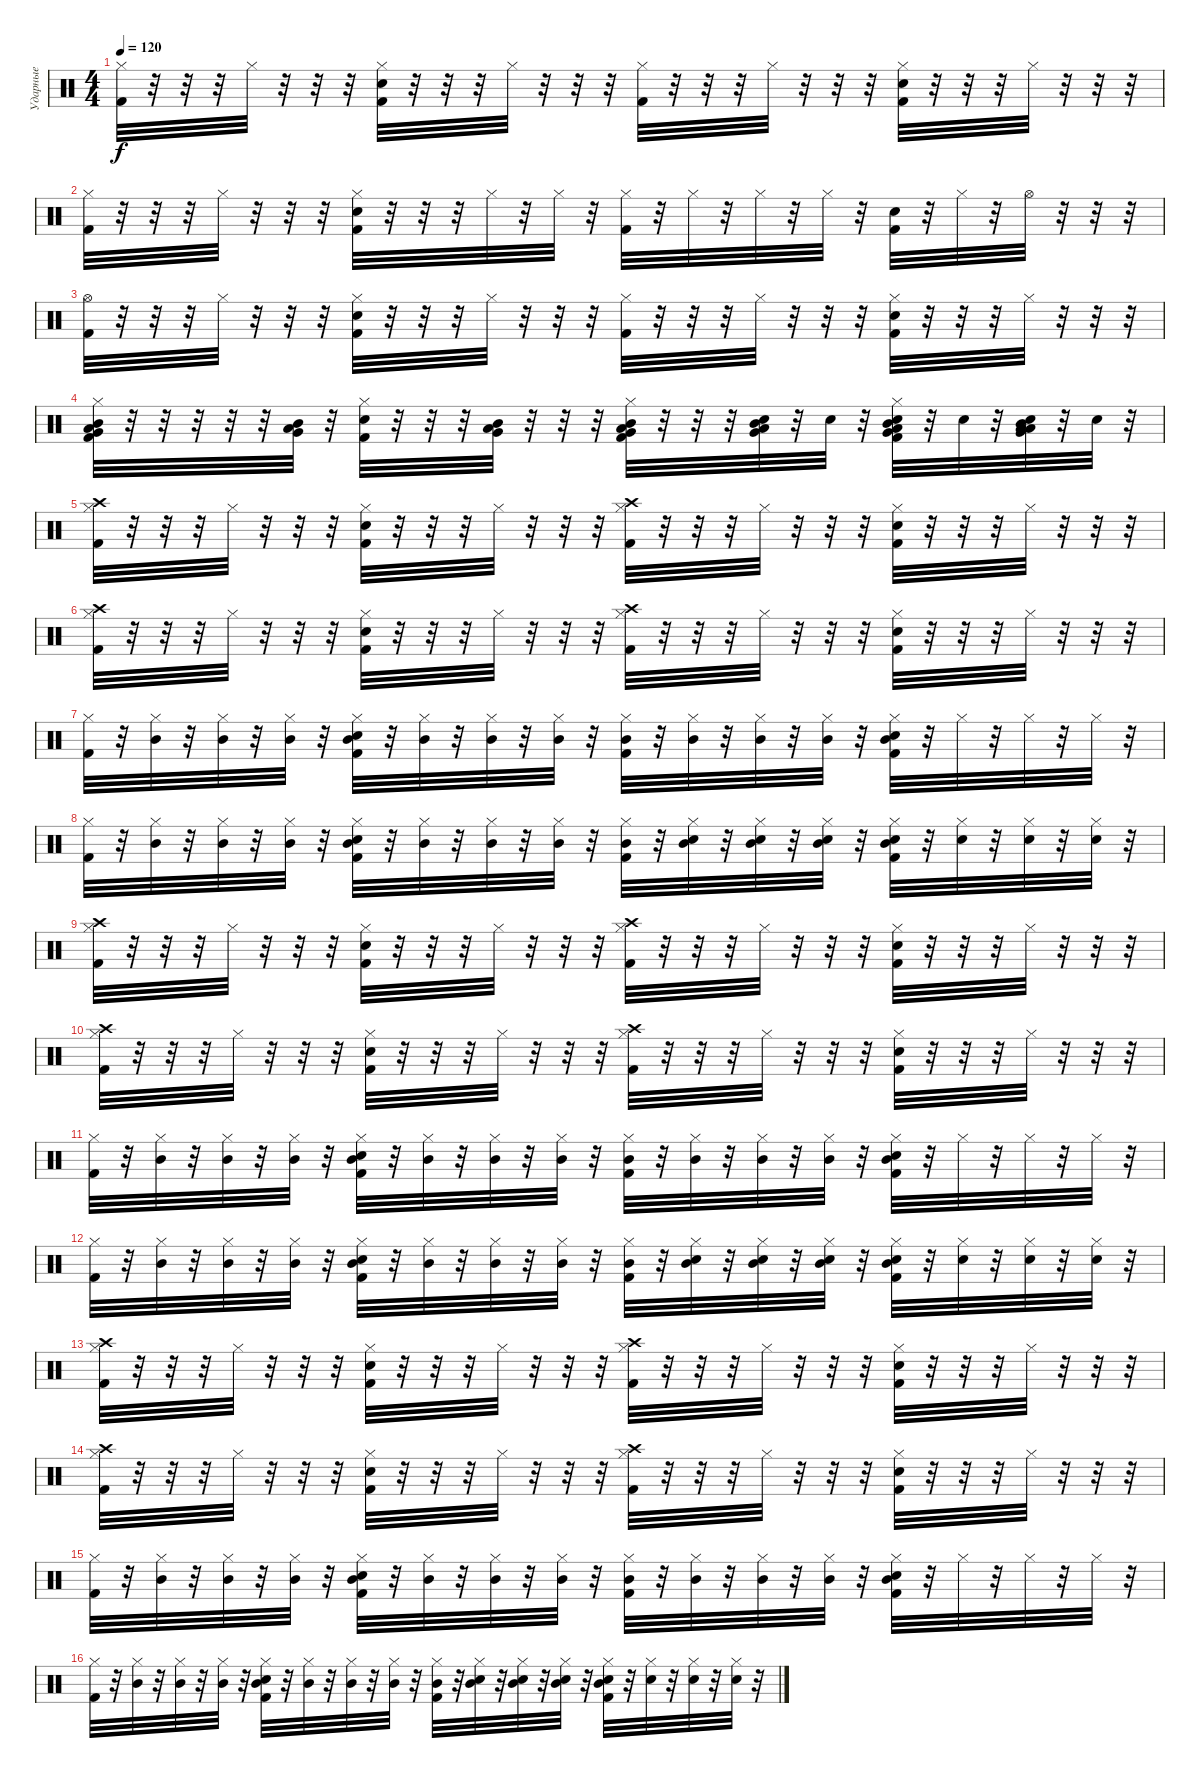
\track ("Ударные" "Ударные") {instrument percussion}
\staff {score}
\articulation defaults
\ts (4 4)
\tempo 120
\clef neutral
\ks c
("Hi-Hat (closed)" "Kick (hit) 2").32{dy f} r.32 r.32 r.32 "Hi-Hat (closed)".32 r.32 r.32 r.32 ("Hi-Hat (closed)" "Kick (hit) 2" "Snare (hit) 2").32 r.32 r.32 r.32 "Hi-Hat (closed)".32 r.32 r.32 r.32 ("Hi-Hat (closed)" "Kick (hit) 2").32 r.32 r.32 r.32 "Hi-Hat (closed)".32 r.32 r.32 r.32 ("Snare (hit) 2" "Kick (hit) 2" "Hi-Hat (closed)").32 r.32 r.32 r.32 "Hi-Hat (closed)".32 r.32 r.32 r.32 |
("Hi-Hat (closed)" "Kick (hit) 2").32 r.32 r.32 r.32 "Hi-Hat (closed)".32 r.32 r.32 r.32 ("Hi-Hat (closed)" "Kick (hit) 2" "Snare (hit) 2").32 r.32 r.32 r.32 "Hi-Hat (closed)".32 r.32 "Hi-Hat (closed)".32 r.32 ("Hi-Hat (closed)" "Kick (hit) 2").32 r.32 "Hi-Hat (closed)".32 r.32 "Hi-Hat (closed)".32 r.32 "Hi-Hat (closed)".32 r.32 ("Snare (hit) 2" "Kick (hit) 2").32 r.32 "Hi-Hat (closed)".32 r.32 "Hi-Hat (open)".32 r.32 r.32 r.32 |
("Hi-Hat (open)" "Kick (hit) 2").32 r.32 r.32 r.32 "Hi-Hat (closed)".32 r.32 r.32 r.32 ("Hi-Hat (closed)" "Kick (hit) 2" "Snare (hit) 2").32 r.32 r.32 r.32 "Hi-Hat (closed)".32 r.32 r.32 r.32 ("Hi-Hat (closed)" "Kick (hit) 2").32 r.32 r.32 r.32 "Hi-Hat (closed)".32 r.32 r.32 r.32 ("Snare (hit) 2" "Kick (hit) 2" "Hi-Hat (closed)").32 r.32 r.32 r.32 "Hi-Hat (closed)".32 r.32 r.32 r.32 |
("Very Low Tom (hit)" "Hi-Hat (closed)" "Kick (hit) 2" "Low Tom (hit)" "Mid Tom (hit)").32 r.32 r.32 r.32 r.32 r.32 ("Very Low Tom (hit)" "Low Tom (hit)" "Mid Tom (hit)").32 r.32 ("Hi-Hat (closed)" "Kick (hit) 2" "Snare (hit) 2").32 r.32 r.32 r.32 ("Very Low Tom (hit)" "Low Tom (hit)" "Mid Tom (hit)").32 r.32 r.32 r.32 ("Very Low Tom (hit)" "Hi-Hat (closed)" "Kick (hit) 2" "Mid Tom (hit)" "Low Tom (hit)").32 r.32 r.32 r.32 ("Very Low Tom (hit)" "Snare (hit) 2" "Mid Tom (hit)" "Low Tom (hit)").32 r.32 "Snare (hit) 2".32 r.32 ("Very Low Tom (hit)" "Snare (hit) 2" "Hi-Hat (closed)" "Kick (hit) 2" "Mid Tom (hit)" "Low Tom (hit)").32 r.32 "Snare (hit) 2".32 r.32 ("Very Low Tom (hit)" "Snare (hit) 2" "Mid Tom (hit)" "Low Tom (hit)" "Low Tom (hit)").32 r.32 "Snare (hit) 2".32 r.32 |
("Crash high (hit)" "Hi-Hat (closed)" "Kick (hit) 2").32 r.32 r.32 r.32 "Hi-Hat (closed)".32 r.32 r.32 r.32 ("Hi-Hat (closed)" "Kick (hit) 2" "Snare (hit) 2").32 r.32 r.32 r.32 "Hi-Hat (closed)".32 r.32 r.32 r.32 ("Crash high (hit)" "Hi-Hat (closed)" "Kick (hit) 2").32 r.32 r.32 r.32 "Hi-Hat (closed)".32 r.32 r.32 r.32 ("Snare (hit) 2" "Kick (hit) 2" "Hi-Hat (closed)").32 r.32 r.32 r.32 "Hi-Hat (closed)".32 r.32 r.32 r.32 |
("Crash high (hit)" "Hi-Hat (closed)" "Kick (hit) 2").32 r.32 r.32 r.32 "Hi-Hat (closed)".32 r.32 r.32 r.32 ("Hi-Hat (closed)" "Kick (hit) 2" "Snare (hit) 2").32 r.32 r.32 r.32 "Hi-Hat (closed)".32 r.32 r.32 r.32 ("Crash high (hit)" "Hi-Hat (closed)" "Kick (hit) 2").32 r.32 r.32 r.32 "Hi-Hat (closed)".32 r.32 r.32 r.32 ("Snare (hit) 2" "Kick (hit) 2" "Hi-Hat (closed)").32 r.32 r.32 r.32 "Hi-Hat (closed)".32 r.32 r.32 r.32 |
("Hi-Hat (closed)" "Kick (hit) 2").32 r.32 ("Hi-Hat (closed)" "Mid Tom (hit)").32 r.32 ("Hi-Hat (closed)" "Mid Tom (hit)").32 r.32 ("Hi-Hat (closed)" "Mid Tom (hit)").32 r.32 ("Hi-Hat (closed)" "Kick (hit) 2" "Snare (hit) 2" "Mid Tom (hit)").32 r.32 ("Hi-Hat (closed)" "Mid Tom (hit)").32 r.32 ("Hi-Hat (closed)" "Mid Tom (hit)").32 r.32 ("Hi-Hat (closed)" "Mid Tom (hit)").32 r.32 ("Hi-Hat (closed)" "Kick (hit) 2" "Mid Tom (hit)").32 r.32 ("Hi-Hat (closed)" "Mid Tom (hit)").32 r.32 ("Hi-Hat (closed)" "Mid Tom (hit)").32 r.32 ("Hi-Hat (closed)" "Mid Tom (hit)").32 r.32 ("Snare (hit) 2" "Kick (hit) 2" "Hi-Hat (closed)" "Mid Tom (hit)").32 r.32 "Hi-Hat (closed)".32 r.32 "Hi-Hat (closed)".32 r.32 "Hi-Hat (closed)".32 r.32 |
("Hi-Hat (closed)" "Kick (hit) 2").32 r.32 ("Hi-Hat (closed)" "Mid Tom (hit)").32 r.32 ("Hi-Hat (closed)" "Mid Tom (hit)").32 r.32 ("Hi-Hat (closed)" "Mid Tom (hit)").32 r.32 ("Hi-Hat (closed)" "Kick (hit) 2" "Snare (hit) 2" "Mid Tom (hit)").32 r.32 ("Hi-Hat (closed)" "Mid Tom (hit)").32 r.32 ("Hi-Hat (closed)" "Mid Tom (hit)").32 r.32 ("Hi-Hat (closed)" "Mid Tom (hit)").32 r.32 ("Hi-Hat (closed)" "Kick (hit) 2" "Mid Tom (hit)").32 r.32 ("Snare (hit) 2" "Hi-Hat (closed)" "Mid Tom (hit)").32 r.32 ("Snare (hit) 2" "Hi-Hat (closed)" "Mid Tom (hit)").32 r.32 ("Snare (hit) 2" "Hi-Hat (closed)" "Mid Tom (hit)").32 r.32 ("Snare (hit) 2" "Kick (hit) 2" "Hi-Hat (closed)" "Mid Tom (hit)").32 r.32 ("Snare (hit) 2" "Hi-Hat (closed)").32 r.32 ("Snare (hit) 2" "Hi-Hat (closed)").32 r.32 ("Snare (hit) 2" "Hi-Hat (closed)").32 r.32 |
("Crash high (hit)" "Hi-Hat (closed)" "Kick (hit) 2").32 r.32 r.32 r.32 "Hi-Hat (closed)".32 r.32 r.32 r.32 ("Hi-Hat (closed)" "Kick (hit) 2" "Snare (hit) 2").32 r.32 r.32 r.32 "Hi-Hat (closed)".32 r.32 r.32 r.32 ("Crash high (hit)" "Hi-Hat (closed)" "Kick (hit) 2").32 r.32 r.32 r.32 "Hi-Hat (closed)".32 r.32 r.32 r.32 ("Snare (hit) 2" "Kick (hit) 2" "Hi-Hat (closed)").32 r.32 r.32 r.32 "Hi-Hat (closed)".32 r.32 r.32 r.32 |
("Crash high (hit)" "Hi-Hat (closed)" "Kick (hit) 2").32 r.32 r.32 r.32 "Hi-Hat (closed)".32 r.32 r.32 r.32 ("Hi-Hat (closed)" "Kick (hit) 2" "Snare (hit) 2").32 r.32 r.32 r.32 "Hi-Hat (closed)".32 r.32 r.32 r.32 ("Crash high (hit)" "Hi-Hat (closed)" "Kick (hit) 2").32 r.32 r.32 r.32 "Hi-Hat (closed)".32 r.32 r.32 r.32 ("Snare (hit) 2" "Kick (hit) 2" "Hi-Hat (closed)").32 r.32 r.32 r.32 "Hi-Hat (closed)".32 r.32 r.32 r.32 |
("Hi-Hat (closed)" "Kick (hit) 2").32 r.32 ("Hi-Hat (closed)" "Mid Tom (hit)").32 r.32 ("Hi-Hat (closed)" "Mid Tom (hit)").32 r.32 ("Hi-Hat (closed)" "Mid Tom (hit)").32 r.32 ("Hi-Hat (closed)" "Kick (hit) 2" "Snare (hit) 2" "Mid Tom (hit)").32 r.32 ("Hi-Hat (closed)" "Mid Tom (hit)").32 r.32 ("Hi-Hat (closed)" "Mid Tom (hit)").32 r.32 ("Hi-Hat (closed)" "Mid Tom (hit)").32 r.32 ("Hi-Hat (closed)" "Kick (hit) 2" "Mid Tom (hit)").32 r.32 ("Hi-Hat (closed)" "Mid Tom (hit)").32 r.32 ("Hi-Hat (closed)" "Mid Tom (hit)").32 r.32 ("Hi-Hat (closed)" "Mid Tom (hit)").32 r.32 ("Snare (hit) 2" "Kick (hit) 2" "Hi-Hat (closed)" "Mid Tom (hit)").32 r.32 "Hi-Hat (closed)".32 r.32 "Hi-Hat (closed)".32 r.32 "Hi-Hat (closed)".32 r.32 |
("Hi-Hat (closed)" "Kick (hit) 2").32 r.32 ("Hi-Hat (closed)" "Mid Tom (hit)").32 r.32 ("Hi-Hat (closed)" "Mid Tom (hit)").32 r.32 ("Hi-Hat (closed)" "Mid Tom (hit)").32 r.32 ("Hi-Hat (closed)" "Kick (hit) 2" "Snare (hit) 2" "Mid Tom (hit)").32 r.32 ("Hi-Hat (closed)" "Mid Tom (hit)").32 r.32 ("Hi-Hat (closed)" "Mid Tom (hit)").32 r.32 ("Hi-Hat (closed)" "Mid Tom (hit)").32 r.32 ("Hi-Hat (closed)" "Kick (hit) 2" "Mid Tom (hit)").32 r.32 ("Snare (hit) 2" "Hi-Hat (closed)" "Mid Tom (hit)").32 r.32 ("Snare (hit) 2" "Hi-Hat (closed)" "Mid Tom (hit)").32 r.32 ("Snare (hit) 2" "Hi-Hat (closed)" "Mid Tom (hit)").32 r.32 ("Snare (hit) 2" "Kick (hit) 2" "Hi-Hat (closed)" "Mid Tom (hit)").32 r.32 ("Snare (hit) 2" "Hi-Hat (closed)").32 r.32 ("Snare (hit) 2" "Hi-Hat (closed)").32 r.32 ("Snare (hit) 2" "Hi-Hat (closed)").32 r.32 |
("Crash high (hit)" "Hi-Hat (closed)" "Kick (hit) 2").32 r.32 r.32 r.32 "Hi-Hat (closed)".32 r.32 r.32 r.32 ("Hi-Hat (closed)" "Kick (hit) 2" "Snare (hit) 2").32 r.32 r.32 r.32 "Hi-Hat (closed)".32 r.32 r.32 r.32 ("Crash high (hit)" "Hi-Hat (closed)" "Kick (hit) 2").32 r.32 r.32 r.32 "Hi-Hat (closed)".32 r.32 r.32 r.32 ("Snare (hit) 2" "Kick (hit) 2" "Hi-Hat (closed)").32 r.32 r.32 r.32 "Hi-Hat (closed)".32 r.32 r.32 r.32 |
("Crash high (hit)" "Hi-Hat (closed)" "Kick (hit) 2").32 r.32 r.32 r.32 "Hi-Hat (closed)".32 r.32 r.32 r.32 ("Hi-Hat (closed)" "Kick (hit) 2" "Snare (hit) 2").32 r.32 r.32 r.32 "Hi-Hat (closed)".32 r.32 r.32 r.32 ("Crash high (hit)" "Hi-Hat (closed)" "Kick (hit) 2").32 r.32 r.32 r.32 "Hi-Hat (closed)".32 r.32 r.32 r.32 ("Snare (hit) 2" "Kick (hit) 2" "Hi-Hat (closed)").32 r.32 r.32 r.32 "Hi-Hat (closed)".32 r.32 r.32 r.32 |
("Hi-Hat (closed)" "Kick (hit) 2").32 r.32 ("Hi-Hat (closed)" "Mid Tom (hit)").32 r.32 ("Hi-Hat (closed)" "Mid Tom (hit)").32 r.32 ("Hi-Hat (closed)" "Mid Tom (hit)").32 r.32 ("Hi-Hat (closed)" "Kick (hit) 2" "Snare (hit) 2" "Mid Tom (hit)").32 r.32 ("Hi-Hat (closed)" "Mid Tom (hit)").32 r.32 ("Hi-Hat (closed)" "Mid Tom (hit)").32 r.32 ("Hi-Hat (closed)" "Mid Tom (hit)").32 r.32 ("Hi-Hat (closed)" "Kick (hit) 2" "Mid Tom (hit)").32 r.32 ("Hi-Hat (closed)" "Mid Tom (hit)").32 r.32 ("Hi-Hat (closed)" "Mid Tom (hit)").32 r.32 ("Hi-Hat (closed)" "Mid Tom (hit)").32 r.32 ("Snare (hit) 2" "Kick (hit) 2" "Hi-Hat (closed)" "Mid Tom (hit)").32 r.32 "Hi-Hat (closed)".32 r.32 "Hi-Hat (closed)".32 r.32 "Hi-Hat (closed)".32 r.32 |
("Hi-Hat (closed)" "Kick (hit) 2").32 r.32 ("Hi-Hat (closed)" "Mid Tom (hit)").32 r.32 ("Hi-Hat (closed)" "Mid Tom (hit)").32 r.32 ("Hi-Hat (closed)" "Mid Tom (hit)").32 r.32 ("Hi-Hat (closed)" "Kick (hit) 2" "Snare (hit) 2" "Mid Tom (hit)").32 r.32 ("Hi-Hat (closed)" "Mid Tom (hit)").32 r.32 ("Hi-Hat (closed)" "Mid Tom (hit)").32 r.32 ("Hi-Hat (closed)" "Mid Tom (hit)").32 r.32 ("Hi-Hat (closed)" "Kick (hit) 2" "Mid Tom (hit)").32 r.32 ("Snare (hit) 2" "Hi-Hat (closed)" "Mid Tom (hit)").32 r.32 ("Snare (hit) 2" "Hi-Hat (closed)" "Mid Tom (hit)").32 r.32 ("Snare (hit) 2" "Hi-Hat (closed)" "Mid Tom (hit)").32 r.32 ("Snare (hit) 2" "Kick (hit) 2" "Hi-Hat (closed)" "Mid Tom (hit)").32 r.32 ("Snare (hit) 2" "Hi-Hat (closed)").32 r.32 ("Snare (hit) 2" "Hi-Hat (closed)").32 r.32 ("Snare (hit) 2" "Hi-Hat (closed)").32 r.32
